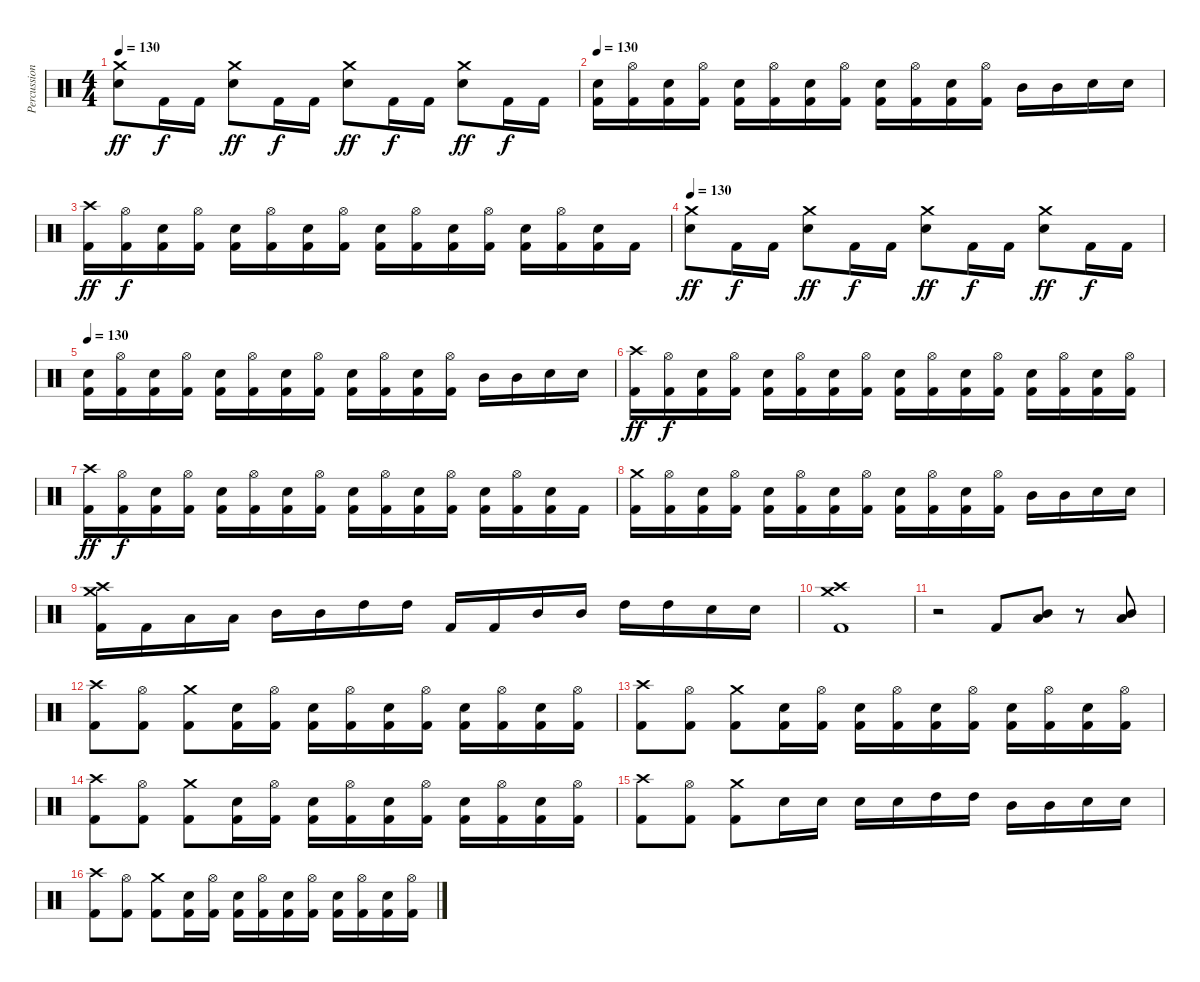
\track ("Percussion" "Percussion") {instrument percussion}
\staff {score}
\articulation defaults
\ts (4 4)
\tempo 130
\clef neutral
\ks c
("Crash medium (hit)" "Electric Snare (hit)").8{dy ff} "Kick (hit) 2".16{dy f} "Kick (hit) 2".16 ("Crash medium (hit)" "Electric Snare (hit)").8{dy ff} "Kick (hit) 2".16{dy f} "Kick (hit) 2".16 ("Crash medium (hit)" "Electric Snare (hit)").8{dy ff} "Kick (hit) 2".16{dy f} "Kick (hit) 2".16 ("Crash medium (hit)" "Electric Snare (hit)").8{dy ff} "Kick (hit) 2".16{dy f} "Kick (hit) 2".16 |
\tempo 130
("Electric Snare (hit)" "Kick (hit) 2").16 ("Hi-Hat (open)" "Kick (hit) 2").16 ("Electric Snare (hit)" "Kick (hit) 2").16 ("Hi-Hat (open)" "Kick (hit) 2").16 ("Electric Snare (hit)" "Kick (hit) 2").16 ("Hi-Hat (open)" "Kick (hit) 2").16 ("Electric Snare (hit)" "Kick (hit) 2").16 ("Hi-Hat (open)" "Kick (hit) 2").16 ("Electric Snare (hit)" "Kick (hit) 2").16 ("Hi-Hat (open)" "Kick (hit) 2").16 ("Electric Snare (hit)" "Kick (hit) 2").16 ("Hi-Hat (open)" "Kick (hit) 2").16 "Mid Tom (hit)".16 "Mid Tom (hit)".16 "Electric Snare (hit)".16 "Electric Snare (hit)".16 |
("Crash high (hit)" "Kick (hit) 2").16{dy ff} ("Hi-Hat (open)" "Kick (hit) 2").16{dy f} ("Electric Snare (hit)" "Kick (hit) 2").16 ("Hi-Hat (open)" "Kick (hit) 2").16 ("Electric Snare (hit)" "Kick (hit) 2").16 ("Hi-Hat (open)" "Kick (hit) 2").16 ("Electric Snare (hit)" "Kick (hit) 2").16 ("Hi-Hat (open)" "Kick (hit) 2").16 ("Electric Snare (hit)" "Kick (hit) 2").16 ("Hi-Hat (open)" "Kick (hit) 2").16 ("Electric Snare (hit)" "Kick (hit) 2").16 ("Hi-Hat (open)" "Kick (hit) 2").16 ("Electric Snare (hit)" "Kick (hit) 2").16 ("Hi-Hat (open)" "Kick (hit) 2").16 ("Electric Snare (hit)" "Kick (hit) 2").16 "Kick (hit) 2".16 |
\tempo 130
("Crash medium (hit)" "Electric Snare (hit)").8{dy ff} "Kick (hit) 2".16{dy f} "Kick (hit) 2".16 ("Crash medium (hit)" "Electric Snare (hit)").8{dy ff} "Kick (hit) 2".16{dy f} "Kick (hit) 2".16 ("Crash medium (hit)" "Electric Snare (hit)").8{dy ff} "Kick (hit) 2".16{dy f} "Kick (hit) 2".16 ("Crash medium (hit)" "Electric Snare (hit)").8{dy ff} "Kick (hit) 2".16{dy f} "Kick (hit) 2".16 |
\tempo 130
("Electric Snare (hit)" "Kick (hit) 2").16 ("Hi-Hat (open)" "Kick (hit) 2").16 ("Electric Snare (hit)" "Kick (hit) 2").16 ("Hi-Hat (open)" "Kick (hit) 2").16 ("Electric Snare (hit)" "Kick (hit) 2").16 ("Hi-Hat (open)" "Kick (hit) 2").16 ("Electric Snare (hit)" "Kick (hit) 2").16 ("Hi-Hat (open)" "Kick (hit) 2").16 ("Electric Snare (hit)" "Kick (hit) 2").16 ("Hi-Hat (open)" "Kick (hit) 2").16 ("Electric Snare (hit)" "Kick (hit) 2").16 ("Hi-Hat (open)" "Kick (hit) 2").16 "Mid Tom (hit)".16 "Mid Tom (hit)".16 "Electric Snare (hit)".16 "Electric Snare (hit)".16 |
("Crash high (hit)" "Kick (hit) 2").16{dy ff} ("Hi-Hat (open)" "Kick (hit) 2").16{dy f} ("Electric Snare (hit)" "Kick (hit) 2").16 ("Hi-Hat (open)" "Kick (hit) 2").16 ("Electric Snare (hit)" "Kick (hit) 2").16 ("Hi-Hat (open)" "Kick (hit) 2").16 ("Electric Snare (hit)" "Kick (hit) 2").16 ("Hi-Hat (open)" "Kick (hit) 2").16 ("Electric Snare (hit)" "Kick (hit) 2").16 ("Hi-Hat (open)" "Kick (hit) 2").16 ("Electric Snare (hit)" "Kick (hit) 2").16 ("Hi-Hat (open)" "Kick (hit) 2").16 ("Electric Snare (hit)" "Kick (hit) 2").16 ("Hi-Hat (open)" "Kick (hit) 2").16 ("Electric Snare (hit)" "Kick (hit) 2").16 ("Hi-Hat (open)" "Kick (hit) 2").16 |
("Crash high (hit)" "Kick (hit) 2").16{dy ff} ("Hi-Hat (open)" "Kick (hit) 2").16{dy f} ("Electric Snare (hit)" "Kick (hit) 2").16 ("Hi-Hat (open)" "Kick (hit) 2").16 ("Electric Snare (hit)" "Kick (hit) 2").16 ("Hi-Hat (open)" "Kick (hit) 2").16 ("Electric Snare (hit)" "Kick (hit) 2").16 ("Hi-Hat (open)" "Kick (hit) 2").16 ("Electric Snare (hit)" "Kick (hit) 2").16 ("Hi-Hat (open)" "Kick (hit) 2").16 ("Electric Snare (hit)" "Kick (hit) 2").16 ("Hi-Hat (open)" "Kick (hit) 2").16 ("Electric Snare (hit)" "Kick (hit) 2").16 ("Hi-Hat (open)" "Kick (hit) 2").16 ("Electric Snare (hit)" "Kick (hit) 2").16 "Kick (hit) 2".16 |
("Crash medium (hit)" "Kick (hit) 2").16 ("Hi-Hat (open)" "Kick (hit) 2").16 ("Electric Snare (hit)" "Kick (hit) 2").16 ("Hi-Hat (open)" "Kick (hit) 2").16 ("Electric Snare (hit)" "Kick (hit) 2").16 ("Hi-Hat (open)" "Kick (hit) 2").16 ("Electric Snare (hit)" "Kick (hit) 2").16 ("Hi-Hat (open)" "Kick (hit) 2").16 ("Electric Snare (hit)" "Kick (hit) 2").16 ("Hi-Hat (open)" "Kick (hit) 2").16 ("Electric Snare (hit)" "Kick (hit) 2").16 ("Hi-Hat (open)" "Kick (hit) 2").16 "Mid Tom (hit)".16 "Mid Tom (hit)".16 "Electric Snare (hit)".16 "Electric Snare (hit)".16 |
("Crash medium (hit)" "Crash high (hit)" "Kick (hit) 2").16 "Kick (hit) 2".16 "Low Tom (hit)".16 "Low Tom (hit)".16 "Mid Tom (hit)".16 "Mid Tom (hit)".16 "High Tom (hit)".16 "High Tom (hit)".16 "Kick (hit) 2".16 "Kick (hit) 2".16 "Mid Tom (hit)".16 "Mid Tom (hit)".16 "High Tom (hit)".16 "High Tom (hit)".16 "Electric Snare (hit)".16 "Electric Snare (hit)".16 |
("Crash high (hit)" "Crash medium (hit)" "Kick (hit) 2").1 |
r.2 "Kick (hit) 2".8 ("Mid Tom (hit)" "Low Tom (hit)").8 r.8 ("Mid Tom (hit)" "Low Tom (hit)").8 |
("Crash high (hit)" "Kick (hit) 2").8 ("Hi-Hat (open)" "Kick (hit) 2").8 ("Crash medium (hit)" "Kick (hit) 2").8 ("Electric Snare (hit)" "Kick (hit) 2").16 ("Hi-Hat (open)" "Kick (hit) 2").16 ("Electric Snare (hit)" "Kick (hit) 2").16 ("Hi-Hat (open)" "Kick (hit) 2").16 ("Electric Snare (hit)" "Kick (hit) 2").16 ("Hi-Hat (open)" "Kick (hit) 2").16 ("Electric Snare (hit)" "Kick (hit) 2").16 ("Hi-Hat (open)" "Kick (hit) 2").16 ("Electric Snare (hit)" "Kick (hit) 2").16 ("Hi-Hat (open)" "Kick (hit) 2").16 |
("Crash high (hit)" "Kick (hit) 2").8 ("Hi-Hat (open)" "Kick (hit) 2").8 ("Crash medium (hit)" "Kick (hit) 2").8 ("Electric Snare (hit)" "Kick (hit) 2").16 ("Hi-Hat (open)" "Kick (hit) 2").16 ("Electric Snare (hit)" "Kick (hit) 2").16 ("Hi-Hat (open)" "Kick (hit) 2").16 ("Electric Snare (hit)" "Kick (hit) 2").16 ("Hi-Hat (open)" "Kick (hit) 2").16 ("Electric Snare (hit)" "Kick (hit) 2").16 ("Hi-Hat (open)" "Kick (hit) 2").16 ("Electric Snare (hit)" "Kick (hit) 2").16 ("Hi-Hat (open)" "Kick (hit) 2").16 |
("Crash high (hit)" "Kick (hit) 2").8 ("Hi-Hat (open)" "Kick (hit) 2").8 ("Crash medium (hit)" "Kick (hit) 2").8 ("Electric Snare (hit)" "Kick (hit) 2").16 ("Hi-Hat (open)" "Kick (hit) 2").16 ("Electric Snare (hit)" "Kick (hit) 2").16 ("Hi-Hat (open)" "Kick (hit) 2").16 ("Electric Snare (hit)" "Kick (hit) 2").16 ("Hi-Hat (open)" "Kick (hit) 2").16 ("Electric Snare (hit)" "Kick (hit) 2").16 ("Hi-Hat (open)" "Kick (hit) 2").16 ("Electric Snare (hit)" "Kick (hit) 2").16 ("Hi-Hat (open)" "Kick (hit) 2").16 |
("Crash high (hit)" "Kick (hit) 2").8 ("Hi-Hat (open)" "Kick (hit) 2").8 ("Crash medium (hit)" "Kick (hit) 2").8 "Electric Snare (hit)".16 "Electric Snare (hit)".16 "Electric Snare (hit)".16 "Electric Snare (hit)".16 "High Tom (hit)".16 "High Tom (hit)".16 "Mid Tom (hit)".16 "Mid Tom (hit)".16 "Electric Snare (hit)".16 "Electric Snare (hit)".16 |
("Crash high (hit)" "Kick (hit) 2").8 ("Hi-Hat (open)" "Kick (hit) 2").8 ("Crash medium (hit)" "Kick (hit) 2").8 ("Electric Snare (hit)" "Kick (hit) 2").16 ("Hi-Hat (open)" "Kick (hit) 2").16 ("Electric Snare (hit)" "Kick (hit) 2").16 ("Hi-Hat (open)" "Kick (hit) 2").16 ("Electric Snare (hit)" "Kick (hit) 2").16 ("Hi-Hat (open)" "Kick (hit) 2").16 ("Electric Snare (hit)" "Kick (hit) 2").16 ("Hi-Hat (open)" "Kick (hit) 2").16 ("Electric Snare (hit)" "Kick (hit) 2").16 ("Hi-Hat (open)" "Kick (hit) 2").16
